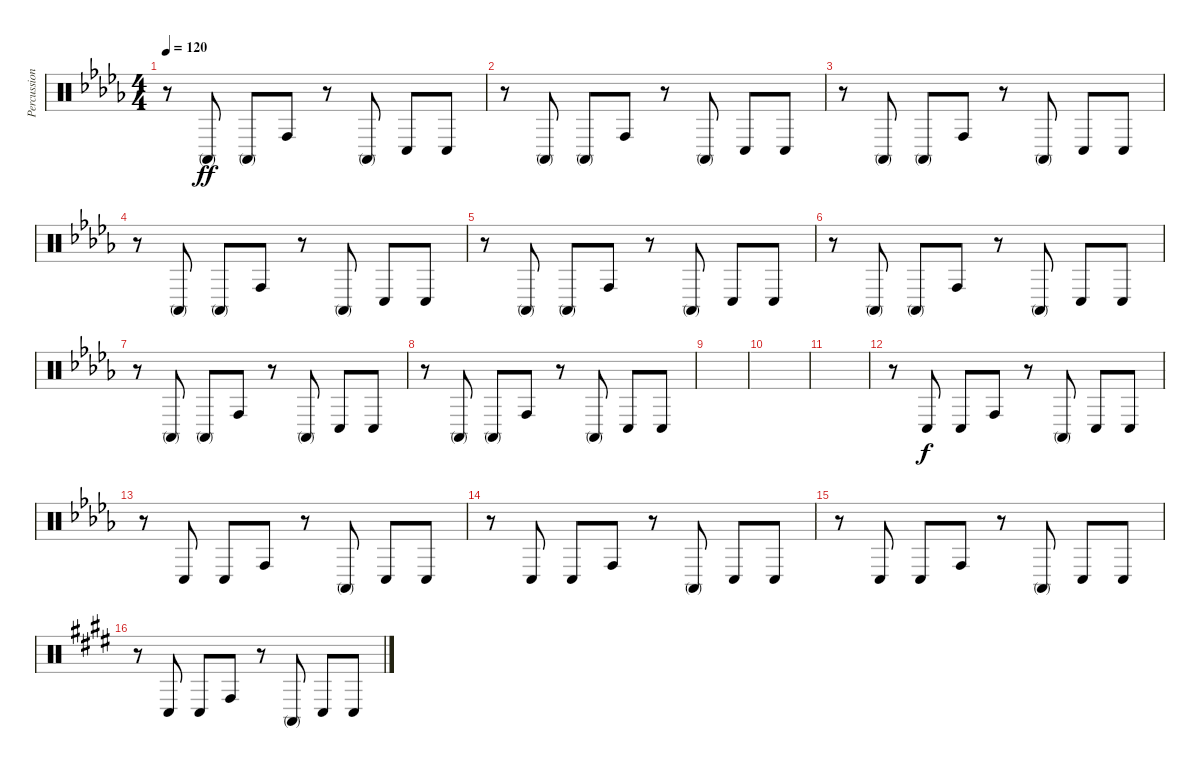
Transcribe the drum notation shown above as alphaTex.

\track ("Percussion" "Percussion") {instrument percussion}
\staff {score}
\articulation defaults
\ts (4 4)
\tempo 120
\clef neutral
\ks db
r.8{dy ff} "Conga high (mute)".8 "Conga high (mute)".8 "Conga high (hit)".8 r.8 "Conga high (mute)".8 "Conga low (hit)".8 "Conga low (hit)".8 |
r.8 "Conga high (mute)".8 "Conga high (mute)".8 "Conga high (hit)".8 r.8 "Conga high (mute)".8 "Conga low (hit)".8 "Conga low (hit)".8 |
r.8 "Conga high (mute)".8 "Conga high (mute)".8 "Conga high (hit)".8 r.8 "Conga high (mute)".8 "Conga low (hit)".8 "Conga low (hit)".8 |
r.8 "Conga high (mute)".8 "Conga high (mute)".8 "Conga high (hit)".8 r.8 "Conga high (mute)".8 "Conga low (hit)".8 "Conga low (hit)".8 |
r.8 "Conga high (mute)".8 "Conga high (mute)".8 "Conga high (hit)".8 r.8 "Conga high (mute)".8 "Conga low (hit)".8 "Conga low (hit)".8 |
r.8 "Conga high (mute)".8 "Conga high (mute)".8 "Conga high (hit)".8 r.8 "Conga high (mute)".8 "Conga low (hit)".8 "Conga low (hit)".8 |
r.8 "Conga high (mute)".8 "Conga high (mute)".8 "Conga high (hit)".8 r.8 "Conga high (mute)".8 "Conga low (hit)".8 "Conga low (hit)".8 |
r.8 "Conga high (mute)".8 "Conga high (mute)".8 "Conga high (hit)".8 r.8 "Conga high (mute)".8 "Conga low (hit)".8 "Conga low (hit)".8 |
|
|
|
r.8 "Conga low (hit)".8{dy f} "Conga low (hit)".8 "Conga high (hit)".8 r.8 "Conga high (mute)".8 "Conga low (hit)".8 "Conga low (hit)".8 |
r.8 "Conga low (hit)".8 "Conga low (hit)".8 "Conga high (hit)".8 r.8 "Conga high (mute)".8 "Conga low (hit)".8 "Conga low (hit)".8 |
r.8 "Conga low (hit)".8 "Conga low (hit)".8 "Conga high (hit)".8 r.8 "Conga high (mute)".8 "Conga low (hit)".8 "Conga low (hit)".8 |
r.8 "Conga low (hit)".8 "Conga low (hit)".8 "Conga high (hit)".8 r.8 "Conga high (mute)".8 "Conga low (hit)".8 "Conga low (hit)".8 |
\ks e
r.8 "Conga low (hit)".8 "Conga low (hit)".8 "Conga high (hit)".8 r.8 "Conga high (mute)".8 "Conga low (hit)".8 "Conga low (hit)".8
